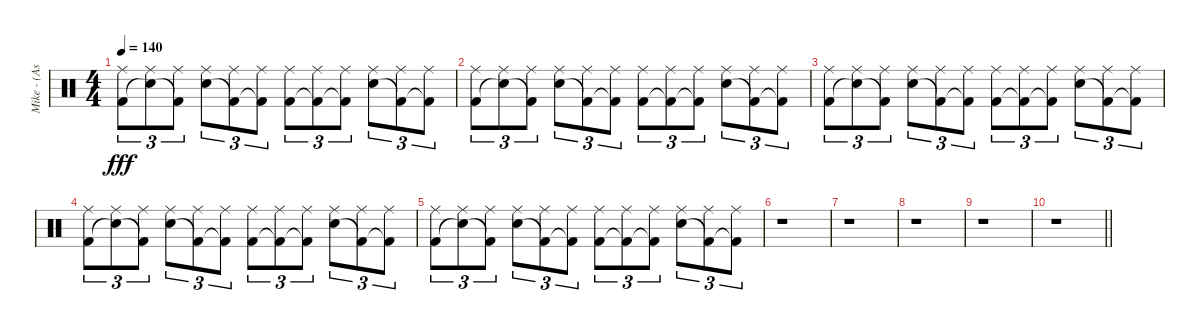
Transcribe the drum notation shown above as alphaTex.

\track ("Mike - (Assault and Battery)" "Mike - (As") {instrument percussion}
\staff {score}
\articulation defaults
\ts (4 4)
\tempo 140
\clef neutral
\ks c
("Ride (middle)" "Kick (hit) 2").8{tu (3 2) dy fff} ("Ride (middle)" "Snare (hit) 2"{t}).8{tu (3 2)} ("Ride (middle)" "Kick (hit) 2"{t}).8{tu (3 2)} ("Ride (middle)" "Snare (hit) 2").8{tu (3 2)} ("Ride (middle)" "Kick (hit) 2"{t}).8{tu (3 2)} ("Ride (middle)" "Kick (hit) 2"{t}).8{tu (3 2)} ("Ride (middle)" "Kick (hit) 2").8{tu (3 2)} ("Ride (middle)" "Kick (hit) 2"{t}).8{tu (3 2)} ("Ride (middle)" "Kick (hit) 2"{t}).8{tu (3 2)} ("Ride (middle)" "Snare (hit) 2").8{tu (3 2)} ("Ride (middle)" "Kick (hit) 2"{t}).8{tu (3 2)} ("Ride (middle)" "Kick (hit) 2"{t}).8{tu (3 2)} |
("Ride (middle)" "Kick (hit) 2").8{tu (3 2)} ("Ride (middle)" "Snare (hit) 2"{t}).8{tu (3 2)} ("Ride (middle)" "Kick (hit) 2"{t}).8{tu (3 2)} ("Ride (middle)" "Snare (hit) 2").8{tu (3 2)} ("Ride (middle)" "Kick (hit) 2"{t}).8{tu (3 2)} ("Ride (middle)" "Kick (hit) 2"{t}).8{tu (3 2)} ("Ride (middle)" "Kick (hit) 2").8{tu (3 2)} ("Ride (middle)" "Kick (hit) 2"{t}).8{tu (3 2)} ("Ride (middle)" "Kick (hit) 2"{t}).8{tu (3 2)} ("Ride (middle)" "Snare (hit) 2").8{tu (3 2)} ("Ride (middle)" "Kick (hit) 2"{t}).8{tu (3 2)} ("Ride (middle)" "Kick (hit) 2"{t}).8{tu (3 2)} |
("Ride (middle)" "Kick (hit) 2").8{tu (3 2)} ("Ride (middle)" "Snare (hit) 2"{t}).8{tu (3 2)} ("Ride (middle)" "Kick (hit) 2"{t}).8{tu (3 2)} ("Ride (middle)" "Snare (hit) 2").8{tu (3 2)} ("Ride (middle)" "Kick (hit) 2"{t}).8{tu (3 2)} ("Ride (middle)" "Kick (hit) 2"{t}).8{tu (3 2)} ("Ride (middle)" "Kick (hit) 2").8{tu (3 2)} ("Ride (middle)" "Kick (hit) 2"{t}).8{tu (3 2)} ("Ride (middle)" "Kick (hit) 2"{t}).8{tu (3 2)} ("Ride (middle)" "Snare (hit) 2").8{tu (3 2)} ("Ride (middle)" "Kick (hit) 2"{t}).8{tu (3 2)} ("Ride (middle)" "Kick (hit) 2"{t}).8{tu (3 2)} |
("Ride (middle)" "Kick (hit) 2").8{tu (3 2)} ("Ride (middle)" "Snare (hit) 2"{t}).8{tu (3 2)} ("Ride (middle)" "Kick (hit) 2"{t}).8{tu (3 2)} ("Ride (middle)" "Snare (hit) 2").8{tu (3 2)} ("Ride (middle)" "Kick (hit) 2"{t}).8{tu (3 2)} ("Ride (middle)" "Kick (hit) 2"{t}).8{tu (3 2)} ("Ride (middle)" "Kick (hit) 2").8{tu (3 2)} ("Ride (middle)" "Kick (hit) 2"{t}).8{tu (3 2)} ("Ride (middle)" "Kick (hit) 2"{t}).8{tu (3 2)} ("Ride (middle)" "Snare (hit) 2").8{tu (3 2)} ("Ride (middle)" "Kick (hit) 2"{t}).8{tu (3 2)} ("Ride (middle)" "Kick (hit) 2"{t}).8{tu (3 2)} |
("Ride (middle)" "Kick (hit) 2").8{tu (3 2)} ("Ride (middle)" "Snare (hit) 2"{t}).8{tu (3 2)} ("Ride (middle)" "Kick (hit) 2"{t}).8{tu (3 2)} ("Ride (middle)" "Snare (hit) 2").8{tu (3 2)} ("Ride (middle)" "Kick (hit) 2"{t}).8{tu (3 2)} ("Ride (middle)" "Kick (hit) 2"{t}).8{tu (3 2)} ("Ride (middle)" "Kick (hit) 2").8{tu (3 2)} ("Ride (middle)" "Kick (hit) 2"{t}).8{tu (3 2)} ("Ride (middle)" "Kick (hit) 2"{t}).8{tu (3 2)} ("Ride (middle)" "Snare (hit) 2").8{tu (3 2)} ("Ride (middle)" "Kick (hit) 2"{t}).8{tu (3 2)} ("Ride (middle)" "Kick (hit) 2"{t}).8{tu (3 2)} |
r.1 |
r.1 |
r.1 |
r.1 |
\barLineRight lightlight
r.1
